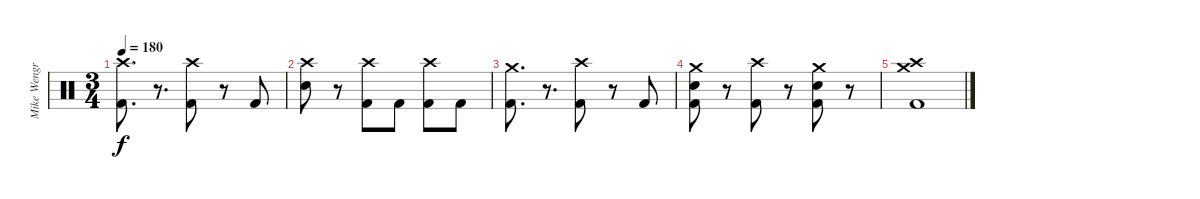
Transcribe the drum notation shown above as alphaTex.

\track ("Mike Wengren" "Mike Wengr") {instrument percussion}
\staff {score}
\articulation defaults
\ts (3 4)
\tempo 180
\clef neutral
\ks c
("Crash high (hit)" "Kick (hit) 2").8{d dy f} r.8{d} ("Crash high (hit)" "Kick (hit) 2").8 r.8 "Kick (hit) 2".8 |
("Crash high (hit)" "Snare (hit) 2").8 r.8 ("Crash high (hit)" "Kick (hit) 2").8 "Kick (hit) 2".8 ("Crash high (hit)" "Kick (hit) 2").8 "Kick (hit) 2".8 |
("Crash medium (hit)" "Kick (hit) 2").8{d} r.8{d} ("Crash high (hit)" "Kick (hit) 2").8 r.8 "Kick (hit) 2".8 |
("Crash medium (hit)" "Snare (hit) 2" "Kick (hit) 2").8 r.8 ("Crash high (hit)" "Kick (hit) 2").8 r.8 ("Crash medium (hit)" "Snare (hit) 2" "Kick (hit) 2").8 r.8 |
("Crash medium (hit)" "Crash high (hit)" "Kick (hit) 2").1
